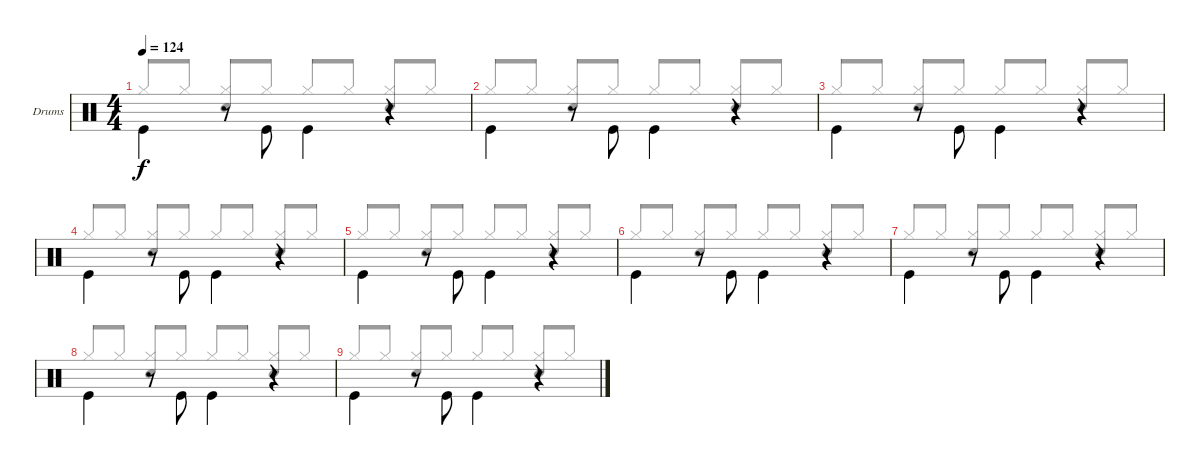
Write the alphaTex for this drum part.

\bracketExtendMode groupsimilarinstruments
\firstSystemTrackNameOrientation horizontal
\otherSystemsTrackNameOrientation horizontal
\track ("Drums" "Drums") {instrument percussion}
\staff {score}
\articulation defaults
\voice
\ts (4 4)
\tempo 124
\clef neutral
\scale
1.02648
\ks c "Kick (hit)".4{dy f beam invert}
r.8 "Kick (hit)".8{beam invert} "Kick (hit)".4{beam invert} r.4 |
\scale
0.973518 "Kick (hit)".4{beam invert} r.8 "Kick (hit)".8{beam invert} "Kick (hit)".4{beam invert} r.4 |
\scale
1.02648 "Kick (hit)".4{beam invert} r.8 "Kick (hit)".8{beam invert} "Kick (hit)".4{beam invert} r.4 |
\scale
0.973518 "Kick (hit)".4{beam invert} r.8 "Kick (hit)".8{beam invert} "Kick (hit)".4{beam invert} r.4 |
\scale
1.02648 "Kick (hit)".4{beam invert} r.8 "Kick (hit)".8{beam invert} "Kick (hit)".4{beam invert} r.4 |
\scale
0.973518 "Kick (hit)".4{beam invert} r.8 "Kick (hit)".8{beam invert} "Kick (hit)".4{beam invert} r.4 |
\scale
1.02648 "Kick (hit)".4{beam invert} r.8 "Kick (hit)".8{beam invert} "Kick (hit)".4{beam invert} r.4 |
\scale
0.973518 "Kick (hit)".4{beam invert} r.8 "Kick (hit)".8{beam invert} "Kick (hit)".4{beam invert} r.4 |
"Kick (hit)".4{beam invert} r.8 "Kick (hit)".8{beam invert} "Kick (hit)".4{beam invert} r.4
\voice
\clef neutral
\ottava regular
\simile none
\scale
1.02648
\ks c "Hi-Hat (closed)".8{dy f beam invert} "Hi-Hat (closed)".8
("Hi-Hat (closed)" "Snare (hit) 2").8{beam invert} "Hi-Hat (closed)".8 "Hi-Hat (closed)".8{beam invert} "Hi-Hat (closed)".8 ("Hi-Hat (closed)" "Snare (hit) 2").8{beam invert} "Hi-Hat (closed)".8 |
\scale
0.973518 "Hi-Hat (closed)".8{beam invert} "Hi-Hat (closed)".8 ("Hi-Hat (closed)" "Snare (hit) 2").8{beam invert} "Hi-Hat (closed)".8 "Hi-Hat (closed)".8{beam invert} "Hi-Hat (closed)".8 ("Hi-Hat (closed)" "Snare (hit) 2").8{beam invert} "Hi-Hat (closed)".8 |
\scale
1.02648 "Hi-Hat (closed)".8{beam invert} "Hi-Hat (closed)".8 ("Hi-Hat (closed)" "Snare (hit) 2").8{beam invert} "Hi-Hat (closed)".8 "Hi-Hat (closed)".8{beam invert} "Hi-Hat (closed)".8 ("Hi-Hat (closed)" "Snare (hit) 2").8{beam invert} "Hi-Hat (closed)".8 |
\scale
0.973518 "Hi-Hat (closed)".8{beam invert} "Hi-Hat (closed)".8 ("Hi-Hat (closed)" "Snare (hit) 2").8{beam invert} "Hi-Hat (closed)".8 "Hi-Hat (closed)".8{beam invert} "Hi-Hat (closed)".8 ("Hi-Hat (closed)" "Snare (hit) 2").8{beam invert} "Hi-Hat (closed)".8 |
\scale
1.02648 "Hi-Hat (closed)".8{beam invert} "Hi-Hat (closed)".8 ("Hi-Hat (closed)" "Snare (hit) 2").8{beam invert} "Hi-Hat (closed)".8 "Hi-Hat (closed)".8{beam invert} "Hi-Hat (closed)".8 ("Hi-Hat (closed)" "Snare (hit) 2").8{beam invert} "Hi-Hat (closed)".8 |
\scale
0.973518 "Hi-Hat (closed)".8{beam invert} "Hi-Hat (closed)".8 ("Hi-Hat (closed)" "Snare (hit) 2").8{beam invert} "Hi-Hat (closed)".8 "Hi-Hat (closed)".8{beam invert} "Hi-Hat (closed)".8 ("Hi-Hat (closed)" "Snare (hit) 2").8{beam invert} "Hi-Hat (closed)".8 |
\scale
1.02648 "Hi-Hat (closed)".8{beam invert} "Hi-Hat (closed)".8 ("Hi-Hat (closed)" "Snare (hit) 2").8{beam invert} "Hi-Hat (closed)".8 "Hi-Hat (closed)".8{beam invert} "Hi-Hat (closed)".8 ("Hi-Hat (closed)" "Snare (hit) 2").8{beam invert} "Hi-Hat (closed)".8 |
\scale
0.973518 "Hi-Hat (closed)".8{beam invert} "Hi-Hat (closed)".8 ("Hi-Hat (closed)" "Snare (hit) 2").8{beam invert} "Hi-Hat (closed)".8 "Hi-Hat (closed)".8{beam invert} "Hi-Hat (closed)".8 ("Hi-Hat (closed)" "Snare (hit) 2").8{beam invert} "Hi-Hat (closed)".8 |
"Hi-Hat (closed)".8{beam invert} "Hi-Hat (closed)".8 ("Hi-Hat (closed)" "Snare (hit) 2").8{beam invert} "Hi-Hat (closed)".8 "Hi-Hat (closed)".8{beam invert} "Hi-Hat (closed)".8 ("Hi-Hat (closed)" "Snare (hit) 2").8{beam invert} "Hi-Hat (closed)".8
